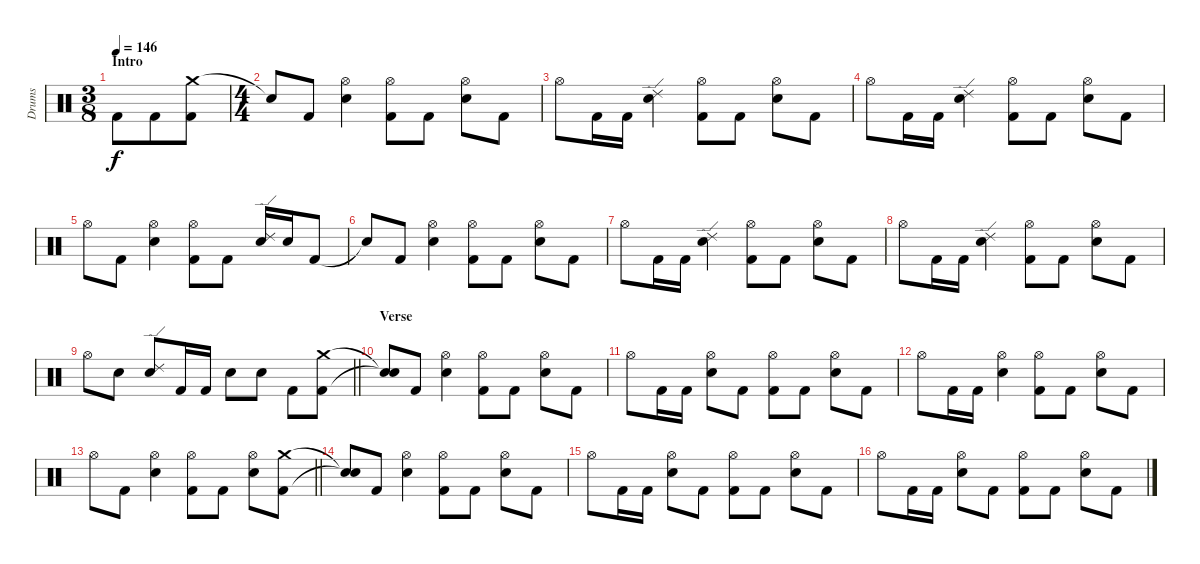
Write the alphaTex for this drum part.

\track ("Drums" "Drums") {instrument percussion}
\staff {score}
\articulation defaults
\ts (3 8)
\section ("" "Intro")
\tempo 146
\clef neutral
\ks c "Kick (hit) 2".8{dy f} "Kick (hit) 2".8
("Crash medium (hit)" "Kick (hit) 2").8 |
\ts (4 4)
"Snare (hit)"{t}.8 "Kick (hit) 2".8 ("Hi-Hat (open)" "Electric Snare (hit)").4 ("Hi-Hat (open)" "Kick (hit) 2").8 "Kick (hit) 2".8 ("Hi-Hat (open)" "Electric Snare (hit)").8 "Kick (hit) 2".8 |
"Hi-Hat (open)".8 "Kick (hit) 2".16 "Kick (hit) 2".16 ("Ride (edge) 2" "Electric Snare (hit)").4 ("Hi-Hat (open)" "Kick (hit) 2").8 "Kick (hit) 2".8 ("Hi-Hat (open)" "Electric Snare (hit)").8 "Kick (hit) 2".8 |
"Hi-Hat (open)".8 "Kick (hit) 2".16 "Kick (hit) 2".16 ("Ride (edge) 2" "Electric Snare (hit)").4 ("Hi-Hat (open)" "Kick (hit) 2").8 "Kick (hit) 2".8 ("Hi-Hat (open)" "Electric Snare (hit)").8 "Kick (hit) 2".8 |
"Hi-Hat (open)".8 "Kick (hit) 2".8 ("Hi-Hat (open)" "Electric Snare (hit)").4 ("Hi-Hat (open)" "Kick (hit) 2").8 "Kick (hit) 2".8 ("Ride (edge) 2" "Electric Snare (hit)").16 "Electric Snare (hit)".16 "Kick (hit) 2".8 |
"Snare (hit)"{t}.8 "Kick (hit) 2".8 ("Hi-Hat (open)" "Electric Snare (hit)").4 ("Hi-Hat (open)" "Kick (hit) 2").8 "Kick (hit) 2".8 ("Hi-Hat (open)" "Electric Snare (hit)").8 "Kick (hit) 2".8 |
"Hi-Hat (open)".8 "Kick (hit) 2".16 "Kick (hit) 2".16 ("Ride (edge) 2" "Electric Snare (hit)").4 ("Hi-Hat (open)" "Kick (hit) 2").8 "Kick (hit) 2".8 ("Hi-Hat (open)" "Electric Snare (hit)").8 "Kick (hit) 2".8 |
"Hi-Hat (open)".8 "Kick (hit) 2".16 "Kick (hit) 2".16 ("Ride (edge) 2" "Electric Snare (hit)").4 ("Hi-Hat (open)" "Kick (hit) 2").8 "Kick (hit) 2".8 ("Hi-Hat (open)" "Electric Snare (hit)").8 "Kick (hit) 2".8 |
\barLineRight lightlight "Hi-Hat (open)".8 "Electric Snare (hit)".8
("Ride (edge) 2" "Electric Snare (hit)").8 "Kick (hit) 2".16 "Kick (hit) 2".16 "Electric Snare (hit)".8 "Electric Snare (hit)".8 "Kick (hit) 2".8 ("Crash medium (hit)" "Kick (hit) 2").8 |
\section ("" "Verse")
("Snare (hit)"{t} "Snare (hit)"{t}).8 "Kick (hit) 2".8 ("Hi-Hat (open)" "Electric Snare (hit)").4 ("Hi-Hat (open)" "Kick (hit) 2").8 "Kick (hit) 2".8 ("Hi-Hat (open)" "Electric Snare (hit)").8 "Kick (hit) 2".8 |
"Hi-Hat (open)".8 "Kick (hit) 2".16 "Kick (hit) 2".16 ("Hi-Hat (open)" "Electric Snare (hit)").8 "Kick (hit) 2".8 ("Hi-Hat (open)" "Kick (hit) 2").8 "Kick (hit) 2".8 ("Hi-Hat (open)" "Electric Snare (hit)").8 "Kick (hit) 2".8 |
"Hi-Hat (open)".8 "Kick (hit) 2".16 "Kick (hit) 2".16 ("Hi-Hat (open)" "Electric Snare (hit)").4 ("Hi-Hat (open)" "Kick (hit) 2").8 "Kick (hit) 2".8 ("Hi-Hat (open)" "Electric Snare (hit)").8 "Kick (hit) 2".8 |
\barLineRight lightlight "Hi-Hat (open)".8 "Kick (hit) 2".8
("Hi-Hat (open)" "Electric Snare (hit)").4 ("Hi-Hat (open)" "Kick (hit) 2").8 "Kick (hit) 2".8 ("Hi-Hat (open)" "Electric Snare (hit)").8 ("Crash medium (hit)" "Kick (hit) 2").8 |
("Snare (hit)"{t} "Snare (hit)"{t}).8 "Kick (hit) 2".8 ("Hi-Hat (open)" "Electric Snare (hit)").4 ("Hi-Hat (open)" "Kick (hit) 2").8 "Kick (hit) 2".8 ("Hi-Hat (open)" "Electric Snare (hit)").8 "Kick (hit) 2".8 |
"Hi-Hat (open)".8 "Kick (hit) 2".16 "Kick (hit) 2".16 ("Hi-Hat (open)" "Electric Snare (hit)").8 "Kick (hit) 2".8 ("Hi-Hat (open)" "Kick (hit) 2").8 "Kick (hit) 2".8 ("Hi-Hat (open)" "Electric Snare (hit)").8 "Kick (hit) 2".8 |
"Hi-Hat (open)".8 "Kick (hit) 2".16 "Kick (hit) 2".16 ("Hi-Hat (open)" "Electric Snare (hit)").8 "Kick (hit) 2".8 ("Hi-Hat (open)" "Kick (hit) 2").8 "Kick (hit) 2".8 ("Hi-Hat (open)" "Electric Snare (hit)").8 "Kick (hit) 2".8
